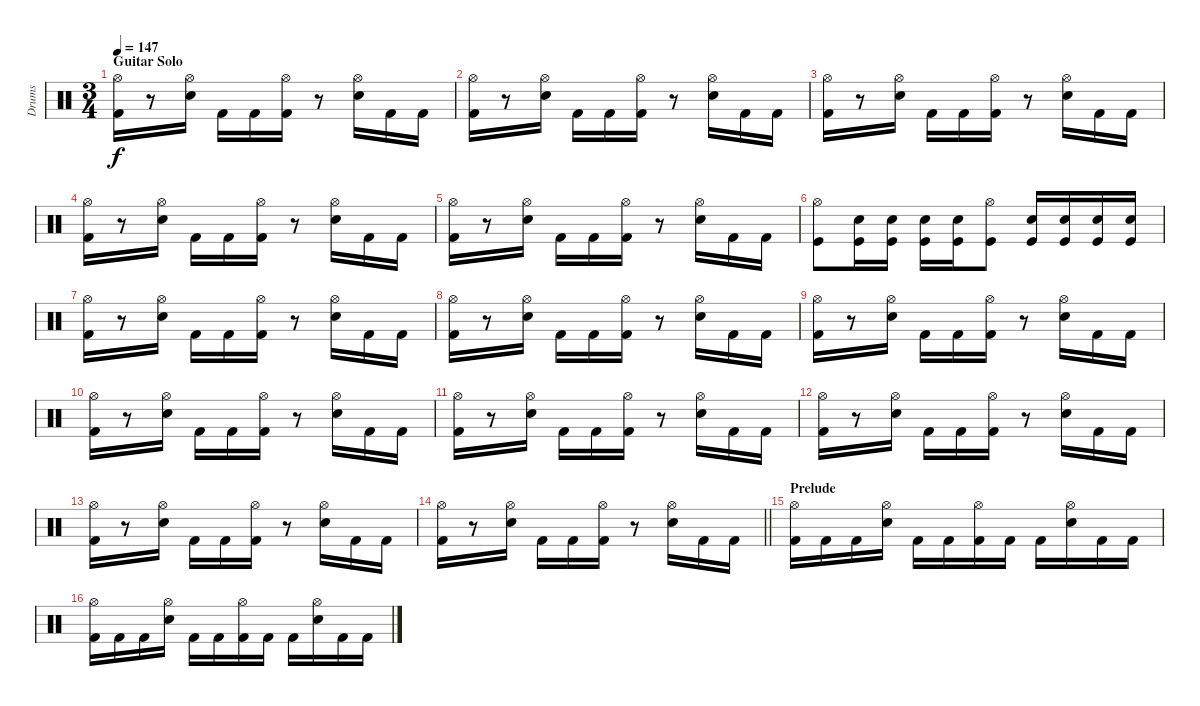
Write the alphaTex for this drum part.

\track ("Drums" "Drums") {instrument percussion}
\staff {score}
\articulation defaults
\ts (3 4)
\section ("" "Guitar Solo")
\tempo 147
\clef neutral
\ks c
("Kick (hit) 2" "Hi-Hat (open)").16{dy f} r.8 ("Snare (hit) 2" "Hi-Hat (open)").16 "Kick (hit) 2".16 "Kick (hit) 2".16 ("Kick (hit) 2" "Hi-Hat (open)").16 r.8 ("Snare (hit) 2" "Hi-Hat (open)").16 "Kick (hit) 2".16 "Kick (hit) 2".16 |
("Kick (hit) 2" "Hi-Hat (open)").16 r.8 ("Snare (hit) 2" "Hi-Hat (open)").16 "Kick (hit) 2".16 "Kick (hit) 2".16 ("Kick (hit) 2" "Hi-Hat (open)").16 r.8 ("Snare (hit) 2" "Hi-Hat (open)").16 "Kick (hit) 2".16 "Kick (hit) 2".16 |
("Kick (hit) 2" "Hi-Hat (open)").16 r.8 ("Snare (hit) 2" "Hi-Hat (open)").16 "Kick (hit) 2".16 "Kick (hit) 2".16 ("Kick (hit) 2" "Hi-Hat (open)").16 r.8 ("Snare (hit) 2" "Hi-Hat (open)").16 "Kick (hit) 2".16 "Kick (hit) 2".16 |
("Kick (hit) 2" "Hi-Hat (open)").16 r.8 ("Snare (hit) 2" "Hi-Hat (open)").16 "Kick (hit) 2".16 "Kick (hit) 2".16 ("Kick (hit) 2" "Hi-Hat (open)").16 r.8 ("Snare (hit) 2" "Hi-Hat (open)").16 "Kick (hit) 2".16 "Kick (hit) 2".16 |
("Kick (hit) 2" "Hi-Hat (open)").16 r.8 ("Snare (hit) 2" "Hi-Hat (open)").16 "Kick (hit) 2".16 "Kick (hit) 2".16 ("Kick (hit) 2" "Hi-Hat (open)").16 r.8 ("Snare (hit) 2" "Hi-Hat (open)").16 "Kick (hit) 2".16 "Kick (hit) 2".16 |
("Hi-Hat (open)" "Kick (hit)").8 ("Snare (hit) 2" "Kick (hit)").16 ("Snare (hit) 2" "Kick (hit)").16 ("Snare (hit) 2" "Kick (hit)").16 ("Snare (hit) 2" "Kick (hit)").16 ("Hi-Hat (open)" "Kick (hit)").8 ("Snare (hit) 2" "Kick (hit)").16 ("Snare (hit) 2" "Kick (hit)").16 ("Snare (hit) 2" "Kick (hit)").16 ("Snare (hit) 2" "Kick (hit)").16 |
("Kick (hit) 2" "Hi-Hat (open)").16 r.8 ("Snare (hit) 2" "Hi-Hat (open)").16 "Kick (hit) 2".16 "Kick (hit) 2".16 ("Kick (hit) 2" "Hi-Hat (open)").16 r.8 ("Snare (hit) 2" "Hi-Hat (open)").16 "Kick (hit) 2".16 "Kick (hit) 2".16 |
("Kick (hit) 2" "Hi-Hat (open)").16 r.8 ("Snare (hit) 2" "Hi-Hat (open)").16 "Kick (hit) 2".16 "Kick (hit) 2".16 ("Kick (hit) 2" "Hi-Hat (open)").16 r.8 ("Snare (hit) 2" "Hi-Hat (open)").16 "Kick (hit) 2".16 "Kick (hit) 2".16 |
("Kick (hit) 2" "Hi-Hat (open)").16 r.8 ("Snare (hit) 2" "Hi-Hat (open)").16 "Kick (hit) 2".16 "Kick (hit) 2".16 ("Kick (hit) 2" "Hi-Hat (open)").16 r.8 ("Snare (hit) 2" "Hi-Hat (open)").16 "Kick (hit) 2".16 "Kick (hit) 2".16 |
("Kick (hit) 2" "Hi-Hat (open)").16 r.8 ("Snare (hit) 2" "Hi-Hat (open)").16 "Kick (hit) 2".16 "Kick (hit) 2".16 ("Kick (hit) 2" "Hi-Hat (open)").16 r.8 ("Snare (hit) 2" "Hi-Hat (open)").16 "Kick (hit) 2".16 "Kick (hit) 2".16 |
("Kick (hit) 2" "Hi-Hat (open)").16 r.8 ("Snare (hit) 2" "Hi-Hat (open)").16 "Kick (hit) 2".16 "Kick (hit) 2".16 ("Kick (hit) 2" "Hi-Hat (open)").16 r.8 ("Snare (hit) 2" "Hi-Hat (open)").16 "Kick (hit) 2".16 "Kick (hit) 2".16 |
("Kick (hit) 2" "Hi-Hat (open)").16 r.8 ("Snare (hit) 2" "Hi-Hat (open)").16 "Kick (hit) 2".16 "Kick (hit) 2".16 ("Kick (hit) 2" "Hi-Hat (open)").16 r.8 ("Snare (hit) 2" "Hi-Hat (open)").16 "Kick (hit) 2".16 "Kick (hit) 2".16 |
("Kick (hit) 2" "Hi-Hat (open)").16 r.8 ("Snare (hit) 2" "Hi-Hat (open)").16 "Kick (hit) 2".16 "Kick (hit) 2".16 ("Kick (hit) 2" "Hi-Hat (open)").16 r.8 ("Snare (hit) 2" "Hi-Hat (open)").16 "Kick (hit) 2".16 "Kick (hit) 2".16 |
\barLineRight lightlight
("Kick (hit) 2" "Hi-Hat (open)").16 r.8 ("Snare (hit) 2" "Hi-Hat (open)").16 "Kick (hit) 2".16 "Kick (hit) 2".16 ("Kick (hit) 2" "Hi-Hat (open)").16 r.8 ("Snare (hit) 2" "Hi-Hat (open)").16 "Kick (hit) 2".16 "Kick (hit) 2".16 |
\section ("" "Prelude")
("Kick (hit) 2" "Hi-Hat (open)").16 "Kick (hit) 2".16 "Kick (hit) 2".16 ("Snare (hit) 2" "Hi-Hat (open)").16 "Kick (hit) 2".16 "Kick (hit) 2".16 ("Kick (hit) 2" "Hi-Hat (open)").16 "Kick (hit) 2".16 "Kick (hit) 2".16 ("Snare (hit) 2" "Hi-Hat (open)").16 "Kick (hit) 2".16 "Kick (hit) 2".16 |
("Kick (hit) 2" "Hi-Hat (open)").16 "Kick (hit) 2".16 "Kick (hit) 2".16 ("Snare (hit) 2" "Hi-Hat (open)").16 "Kick (hit) 2".16 "Kick (hit) 2".16 ("Kick (hit) 2" "Hi-Hat (open)").16 "Kick (hit) 2".16 "Kick (hit) 2".16 ("Snare (hit) 2" "Hi-Hat (open)").16 "Kick (hit) 2".16 "Kick (hit) 2".16
